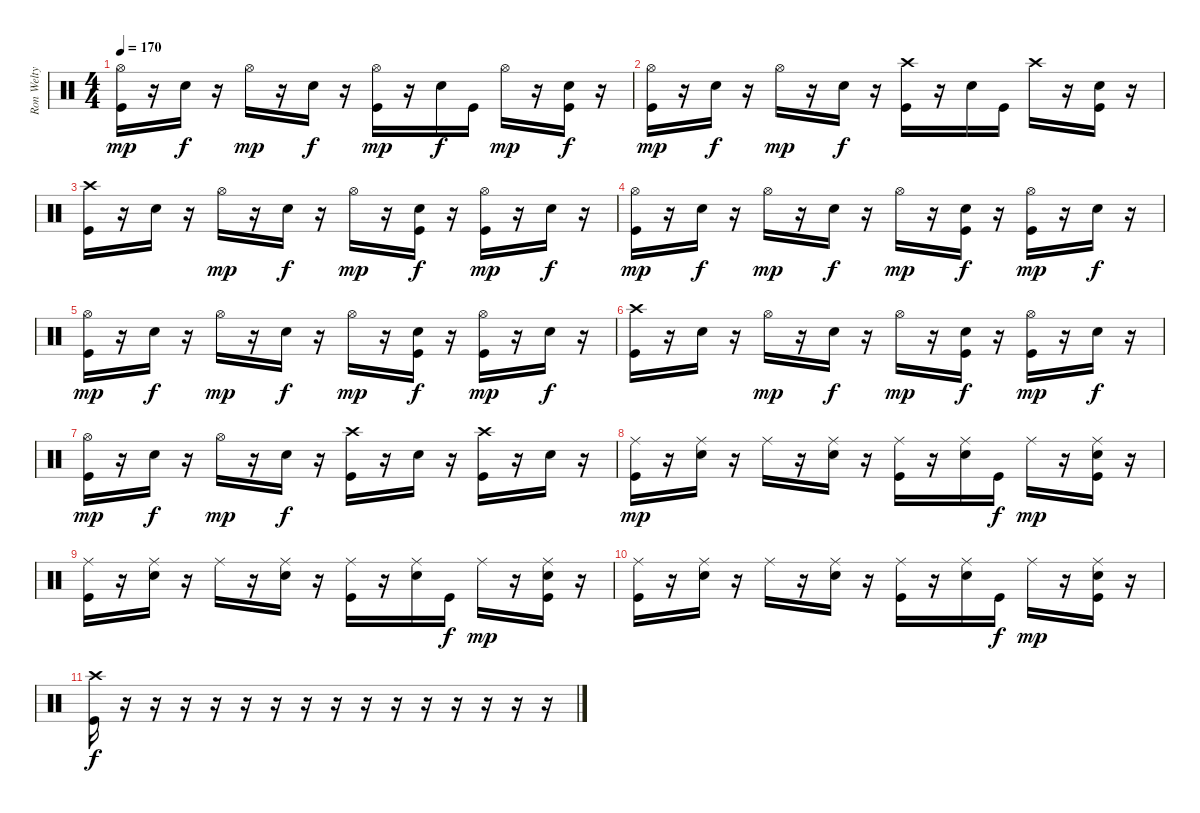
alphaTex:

\track ("Ron Welty" "Ron Welty") {instrument percussion}
\staff {score}
\articulation defaults
\ts (4 4)
\tempo 170
\clef neutral
\ks c
("Hi-Hat (open)" "Kick (hit)").16{dy mp} r.16 "Snare (hit) 2".16{dy f} r.16 "Hi-Hat (open)".16{dy mp} r.16 "Snare (hit) 2".16{dy f} r.16 ("Hi-Hat (open)" "Kick (hit)").16{dy mp} r.16 "Snare (hit) 2".16{dy f} "Kick (hit)".16 "Hi-Hat (open)".16{dy mp} r.16 ("Snare (hit) 2" "Kick (hit)").16{dy f} r.16 |
("Hi-Hat (open)" "Kick (hit)").16{dy mp} r.16 "Snare (hit) 2".16{dy f} r.16 "Hi-Hat (open)".16{dy mp} r.16 "Snare (hit) 2".16{dy f} r.16 ("Crash high (hit)" "Kick (hit)").16 r.16 "Snare (hit) 2".16 "Kick (hit)".16 "Crash high (hit)".16 r.16 ("Snare (hit) 2" "Kick (hit)").16 r.16 |
("Crash high (hit)" "Kick (hit)").16 r.16 "Snare (hit) 2".16 r.16 "Hi-Hat (open)".16{dy mp} r.16 "Snare (hit) 2".16{dy f} r.16 "Hi-Hat (open)".16{dy mp} r.16 ("Snare (hit) 2" "Kick (hit)").16{dy f} r.16 ("Hi-Hat (open)" "Kick (hit)").16{dy mp} r.16 "Snare (hit) 2".16{dy f} r.16 |
("Hi-Hat (open)" "Kick (hit)").16{dy mp} r.16 "Snare (hit) 2".16{dy f} r.16 "Hi-Hat (open)".16{dy mp} r.16 "Snare (hit) 2".16{dy f} r.16 "Hi-Hat (open)".16{dy mp} r.16 ("Snare (hit) 2" "Kick (hit)").16{dy f} r.16 ("Hi-Hat (open)" "Kick (hit)").16{dy mp} r.16 "Snare (hit) 2".16{dy f} r.16 |
("Hi-Hat (open)" "Kick (hit)").16{dy mp} r.16 "Snare (hit) 2".16{dy f} r.16 "Hi-Hat (open)".16{dy mp} r.16 "Snare (hit) 2".16{dy f} r.16 "Hi-Hat (open)".16{dy mp} r.16 ("Snare (hit) 2" "Kick (hit)").16{dy f} r.16 ("Hi-Hat (open)" "Kick (hit)").16{dy mp} r.16 "Snare (hit) 2".16{dy f} r.16 |
("Crash high (hit)" "Kick (hit)").16 r.16 "Snare (hit) 2".16 r.16 "Hi-Hat (open)".16{dy mp} r.16 "Snare (hit) 2".16{dy f} r.16 "Hi-Hat (open)".16{dy mp} r.16 ("Snare (hit) 2" "Kick (hit)").16{dy f} r.16 ("Hi-Hat (open)" "Kick (hit)").16{dy mp} r.16 "Snare (hit) 2".16{dy f} r.16 |
("Hi-Hat (open)" "Kick (hit)").16{dy mp} r.16 "Snare (hit) 2".16{dy f} r.16 "Hi-Hat (open)".16{dy mp} r.16 "Snare (hit) 2".16{dy f} r.16 ("Crash high (hit)" "Kick (hit)").16 r.16 "Snare (hit) 2".16 r.16 ("Crash high (hit)" "Kick (hit)").16 r.16 "Snare (hit) 2".16 r.16 |
("Ride (middle)" "Kick (hit)").16{dy mp} r.16 ("Ride (middle)" "Snare (hit) 2").16 r.16 "Ride (middle)".16 r.16 ("Ride (middle)" "Snare (hit) 2").16 r.16 ("Ride (middle)" "Kick (hit)").16 r.16 ("Ride (middle)" "Snare (hit) 2").16 "Kick (hit)".16{dy f} "Ride (middle)".16{dy mp} r.16 ("Ride (middle)" "Snare (hit) 2" "Kick (hit)").16 r.16 |
("Ride (middle)" "Kick (hit)").16 r.16 ("Ride (middle)" "Snare (hit) 2").16 r.16 "Ride (middle)".16 r.16 ("Ride (middle)" "Snare (hit) 2").16 r.16 ("Ride (middle)" "Kick (hit)").16 r.16 ("Ride (middle)" "Snare (hit) 2").16 "Kick (hit)".16{dy f} "Ride (middle)".16{dy mp} r.16 ("Ride (middle)" "Snare (hit) 2" "Kick (hit)").16 r.16 |
("Ride (middle)" "Kick (hit)").16 r.16 ("Ride (middle)" "Snare (hit) 2").16 r.16 "Ride (middle)".16 r.16 ("Ride (middle)" "Snare (hit) 2").16 r.16 ("Ride (middle)" "Kick (hit)").16 r.16 ("Ride (middle)" "Snare (hit) 2").16 "Kick (hit)".16{dy f} "Ride (middle)".16{dy mp} r.16 ("Ride (middle)" "Snare (hit) 2" "Kick (hit)").16 r.16 |
("Crash high (hit)" "Kick (hit)").16{dy f} r.16 r.16 r.16 r.16 r.16 r.16 r.16 r.16 r.16 r.16 r.16 r.16 r.16 r.16 r.16
